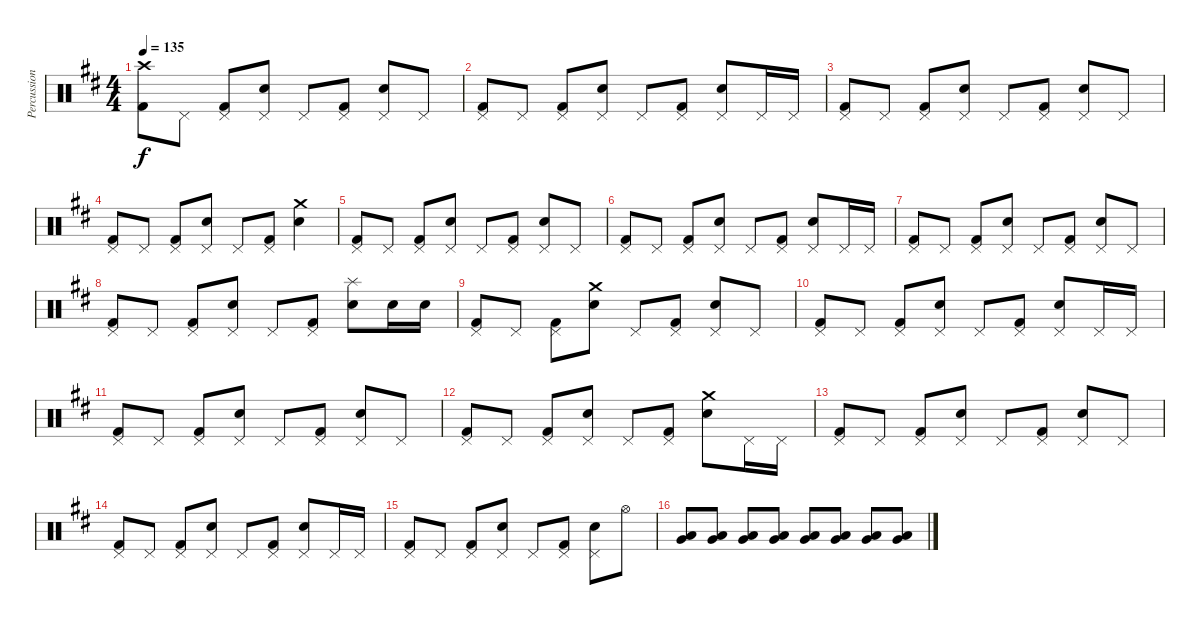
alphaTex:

\track ("Percussion" "Percussion") {instrument percussion}
\staff {score}
\articulation defaults
\ts (4 4)
\tempo 135
\clef neutral
\ks d
("Crash high (hit)" "Kick (hit) 2").8{dy f} "Pedal Hi-Hat (hit)".8 ("Pedal Hi-Hat (hit)" "Kick (hit) 2").8 ("Pedal Hi-Hat (hit)" "Electric Snare (hit)").8 "Pedal Hi-Hat (hit)".8 ("Pedal Hi-Hat (hit)" "Kick (hit) 2").8 ("Pedal Hi-Hat (hit)" "Electric Snare (hit)").8 "Pedal Hi-Hat (hit)".8 |
("Pedal Hi-Hat (hit)" "Kick (hit) 2").8 "Pedal Hi-Hat (hit)".8 ("Pedal Hi-Hat (hit)" "Kick (hit) 2").8 ("Pedal Hi-Hat (hit)" "Electric Snare (hit)").8 "Pedal Hi-Hat (hit)".8 ("Pedal Hi-Hat (hit)" "Kick (hit) 2").8 ("Pedal Hi-Hat (hit)" "Electric Snare (hit)").8 "Pedal Hi-Hat (hit)".16 "Pedal Hi-Hat (hit)".16 |
("Pedal Hi-Hat (hit)" "Kick (hit) 2").8 "Pedal Hi-Hat (hit)".8 ("Pedal Hi-Hat (hit)" "Kick (hit) 2").8 ("Pedal Hi-Hat (hit)" "Electric Snare (hit)").8 "Pedal Hi-Hat (hit)".8 ("Pedal Hi-Hat (hit)" "Kick (hit) 2").8 ("Pedal Hi-Hat (hit)" "Electric Snare (hit)").8 "Pedal Hi-Hat (hit)".8 |
("Pedal Hi-Hat (hit)" "Kick (hit) 2").8 "Pedal Hi-Hat (hit)".8 ("Pedal Hi-Hat (hit)" "Kick (hit) 2").8 ("Pedal Hi-Hat (hit)" "Electric Snare (hit)").8 "Pedal Hi-Hat (hit)".8 ("Pedal Hi-Hat (hit)" "Kick (hit) 2").8 ("Crash medium (hit)" "Electric Snare (hit)").4 |
("Pedal Hi-Hat (hit)" "Kick (hit) 2").8 "Pedal Hi-Hat (hit)".8 ("Pedal Hi-Hat (hit)" "Kick (hit) 2").8 ("Pedal Hi-Hat (hit)" "Electric Snare (hit)").8 "Pedal Hi-Hat (hit)".8 ("Pedal Hi-Hat (hit)" "Kick (hit) 2").8 ("Pedal Hi-Hat (hit)" "Electric Snare (hit)").8 "Pedal Hi-Hat (hit)".8 |
("Pedal Hi-Hat (hit)" "Kick (hit) 2").8 "Pedal Hi-Hat (hit)".8 ("Pedal Hi-Hat (hit)" "Kick (hit) 2").8 ("Pedal Hi-Hat (hit)" "Electric Snare (hit)").8 "Pedal Hi-Hat (hit)".8 ("Pedal Hi-Hat (hit)" "Kick (hit) 2").8 ("Pedal Hi-Hat (hit)" "Electric Snare (hit)").8 "Pedal Hi-Hat (hit)".16 "Pedal Hi-Hat (hit)".16 |
("Pedal Hi-Hat (hit)" "Kick (hit) 2").8 "Pedal Hi-Hat (hit)".8 ("Pedal Hi-Hat (hit)" "Kick (hit) 2").8 ("Pedal Hi-Hat (hit)" "Electric Snare (hit)").8 "Pedal Hi-Hat (hit)".8 ("Pedal Hi-Hat (hit)" "Kick (hit) 2").8 ("Pedal Hi-Hat (hit)" "Electric Snare (hit)").8 "Pedal Hi-Hat (hit)".8 |
("Pedal Hi-Hat (hit)" "Kick (hit) 2").8 "Pedal Hi-Hat (hit)".8 ("Pedal Hi-Hat (hit)" "Kick (hit) 2").8 ("Pedal Hi-Hat (hit)" "Electric Snare (hit)").8 "Pedal Hi-Hat (hit)".8 ("Pedal Hi-Hat (hit)" "Kick (hit) 2").8 ("Splash (hit)" "Electric Snare (hit)").8 "Electric Snare (hit)".16 "Electric Snare (hit)".16 |
("Pedal Hi-Hat (hit)" "Kick (hit) 2").8 "Pedal Hi-Hat (hit)".8 ("Pedal Hi-Hat (hit)" "Kick (hit) 2").8 ("Crash medium (hit)" "Electric Snare (hit)").8 "Pedal Hi-Hat (hit)".8 ("Pedal Hi-Hat (hit)" "Kick (hit) 2").8 ("Pedal Hi-Hat (hit)" "Electric Snare (hit)").8 "Pedal Hi-Hat (hit)".8 |
("Pedal Hi-Hat (hit)" "Kick (hit) 2").8 "Pedal Hi-Hat (hit)".8 ("Pedal Hi-Hat (hit)" "Kick (hit) 2").8 ("Pedal Hi-Hat (hit)" "Electric Snare (hit)").8 "Pedal Hi-Hat (hit)".8 ("Pedal Hi-Hat (hit)" "Kick (hit) 2").8 ("Pedal Hi-Hat (hit)" "Electric Snare (hit)").8 "Pedal Hi-Hat (hit)".16 "Pedal Hi-Hat (hit)".16 |
("Pedal Hi-Hat (hit)" "Kick (hit) 2").8 "Pedal Hi-Hat (hit)".8 ("Pedal Hi-Hat (hit)" "Kick (hit) 2").8 ("Pedal Hi-Hat (hit)" "Electric Snare (hit)").8 "Pedal Hi-Hat (hit)".8 ("Pedal Hi-Hat (hit)" "Kick (hit) 2").8 ("Pedal Hi-Hat (hit)" "Electric Snare (hit)").8 "Pedal Hi-Hat (hit)".8 |
("Pedal Hi-Hat (hit)" "Kick (hit) 2").8 "Pedal Hi-Hat (hit)".8 ("Pedal Hi-Hat (hit)" "Kick (hit) 2").8 ("Pedal Hi-Hat (hit)" "Electric Snare (hit)").8 "Pedal Hi-Hat (hit)".8 ("Pedal Hi-Hat (hit)" "Kick (hit) 2").8 ("Crash medium (hit)" "Electric Snare (hit)").8 "Pedal Hi-Hat (hit)".16 "Pedal Hi-Hat (hit)".16 |
("Pedal Hi-Hat (hit)" "Kick (hit) 2").8 "Pedal Hi-Hat (hit)".8 ("Pedal Hi-Hat (hit)" "Kick (hit) 2").8 ("Pedal Hi-Hat (hit)" "Electric Snare (hit)").8 "Pedal Hi-Hat (hit)".8 ("Pedal Hi-Hat (hit)" "Kick (hit) 2").8 ("Pedal Hi-Hat (hit)" "Electric Snare (hit)").8 "Pedal Hi-Hat (hit)".8 |
("Pedal Hi-Hat (hit)" "Kick (hit) 2").8 "Pedal Hi-Hat (hit)".8 ("Pedal Hi-Hat (hit)" "Kick (hit) 2").8 ("Pedal Hi-Hat (hit)" "Electric Snare (hit)").8 "Pedal Hi-Hat (hit)".8 ("Pedal Hi-Hat (hit)" "Kick (hit) 2").8 ("Pedal Hi-Hat (hit)" "Electric Snare (hit)").8 "Pedal Hi-Hat (hit)".16 "Pedal Hi-Hat (hit)".16 |
("Pedal Hi-Hat (hit)" "Kick (hit) 2").8 "Pedal Hi-Hat (hit)".8 ("Pedal Hi-Hat (hit)" "Kick (hit) 2").8 ("Pedal Hi-Hat (hit)" "Electric Snare (hit)").8 "Pedal Hi-Hat (hit)".8 ("Pedal Hi-Hat (hit)" "Kick (hit) 2").8 ("Pedal Hi-Hat (hit)" "Electric Snare (hit)").8 "Hi-Hat (open)".8 |
("Low Floor Tom (hit)" "Very Low Tom (hit)").8 ("Low Floor Tom (hit)" "Very Low Tom (hit)").8 ("Low Floor Tom (hit)" "Very Low Tom (hit)").8 ("Low Floor Tom (hit)" "Very Low Tom (hit)").8 ("Low Floor Tom (hit)" "Very Low Tom (hit)").8 ("Low Floor Tom (hit)" "Very Low Tom (hit)").8 ("Low Floor Tom (hit)" "Very Low Tom (hit)").8 ("Low Floor Tom (hit)" "Very Low Tom (hit)").8
